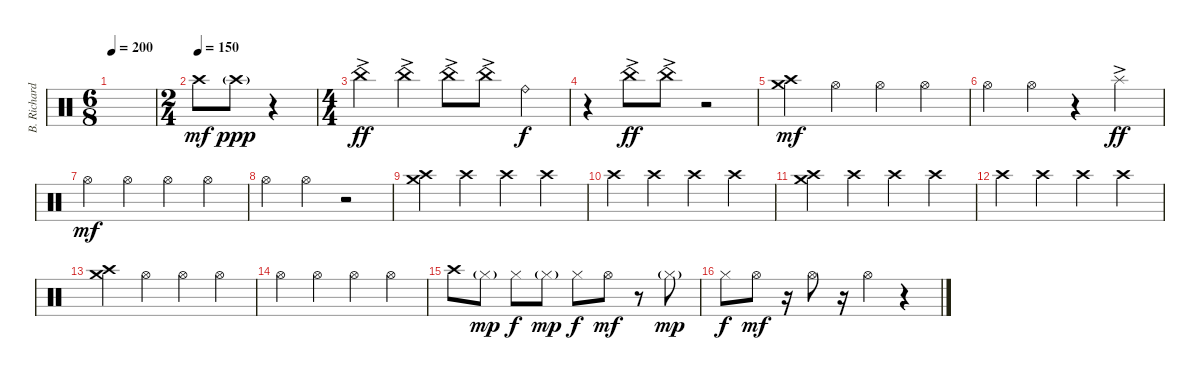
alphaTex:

\track ("B. Richardson Drums" "B. Richard") {instrument percussion}
\staff {score}
\articulation defaults
\ts (6 8)
\tempo 200
\clef neutral
\ks c
|
\ts (2 4)
\tempo (150)
"Crash high (hit)".8{dy mf} "Crash high (hit)"{g}.8{dy ppp} r.4 |
\ts (4 4)
"China (hit)"{ac}.4{dy ff} "China (hit)"{ac}.4 "China (hit)"{ac}.8 "China (hit)"{ac}.8 "Ride (bell)".4{dy f} |
r.4 "China (hit)"{ac}.8{dy ff} "China (hit)"{ac}.8 r.2 |
("Crash high (hit)" "Crash medium (hit)").4{dy mf} "Hi-Hat (open)".4 "Hi-Hat (open)".4 "Hi-Hat (open)".4 |
"Hi-Hat (open)".4 "Hi-Hat (open)".4 r.4 "Splash (hit)"{ac}.4{dy ff} |
"Hi-Hat (open)".4{dy mf} "Hi-Hat (open)".4 "Hi-Hat (open)".4 "Hi-Hat (open)".4 |
"Hi-Hat (open)".4 "Hi-Hat (open)".4 r.2 |
("Crash high (hit)" "Crash medium (hit)").4 "Crash high (hit)".4 "Crash high (hit)".4 "Crash high (hit)".4 |
"Crash high (hit)".4 "Crash high (hit)".4 "Crash high (hit)".4 "Crash high (hit)".4 |
("Crash high (hit)" "Crash medium (hit)").4 "Crash high (hit)".4 "Crash high (hit)".4 "Crash high (hit)".4 |
"Crash high (hit)".4 "Crash high (hit)".4 "Crash high (hit)".4 "Crash high (hit)".4 |
("Crash high (hit)" "Crash medium (hit)").4 "Hi-Hat (open)".4 "Hi-Hat (open)".4 "Hi-Hat (open)".4 |
"Hi-Hat (open)".4 "Hi-Hat (open)".4 "Hi-Hat (open)".4 "Hi-Hat (open)".4 |
"Crash high (hit)".8 "Hi-Hat (closed)"{g}.8{dy mp} "Hi-Hat (closed)".8{dy f} "Hi-Hat (closed)"{g}.8{dy mp} "Hi-Hat (closed)".8{dy f} "Hi-Hat (open)".8{dy mf} r.8 "Hi-Hat (closed)"{g}.8{dy mp} |
"Hi-Hat (closed)".8{dy f} "Hi-Hat (open)".8{dy mf} r.16 "Hi-Hat (open)".8 r.16 "Hi-Hat (open)".4 r.4
